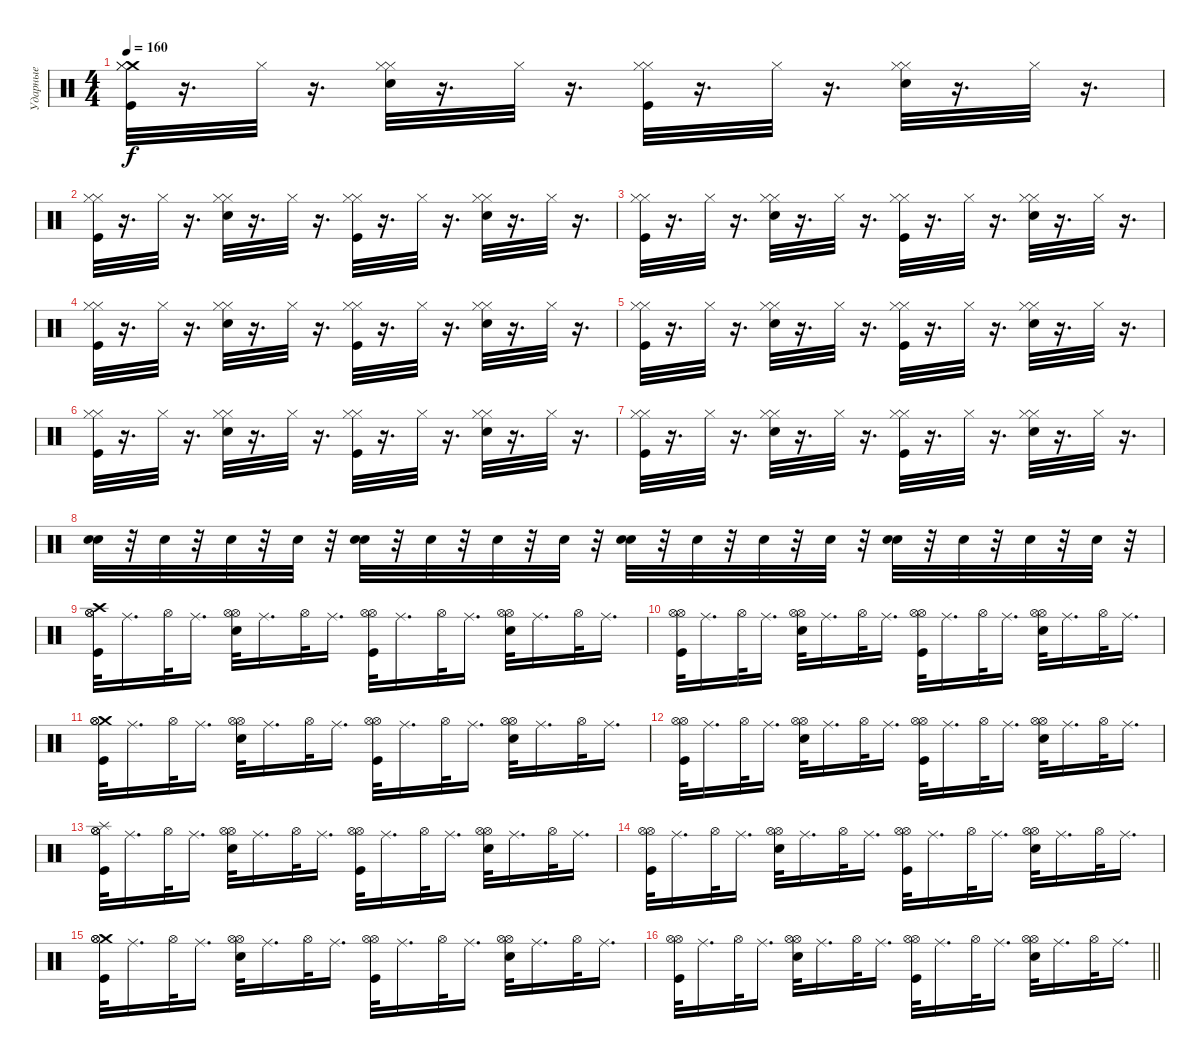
\track ("Ударные" "Ударные") {instrument percussion}
\staff {score}
\articulation defaults
\ts (4 4)
\tempo 160
\clef neutral
\ks c
("Crash medium (hit)" "Hi-Hat (closed)" "Hi-Hat (closed)" "Kick (hit)").32{dy f} r.16{d} "Hi-Hat (closed)".32 r.16{d} ("Hi-Hat (closed)" "Hi-Hat (closed)" "Snare (hit) 2").32 r.16{d} "Hi-Hat (closed)".32 r.16{d} ("Hi-Hat (closed)" "Hi-Hat (closed)" "Kick (hit)").32 r.16{d} "Hi-Hat (closed)".32 r.16{d} ("Hi-Hat (closed)" "Hi-Hat (closed)" "Snare (hit) 2").32 r.16{d} "Hi-Hat (closed)".32 r.16{d} |
("Hi-Hat (closed)" "Hi-Hat (closed)" "Kick (hit)").32 r.16{d} "Hi-Hat (closed)".32 r.16{d} ("Hi-Hat (closed)" "Hi-Hat (closed)" "Snare (hit) 2").32 r.16{d} "Hi-Hat (closed)".32 r.16{d} ("Hi-Hat (closed)" "Hi-Hat (closed)" "Kick (hit)").32 r.16{d} "Hi-Hat (closed)".32 r.16{d} ("Hi-Hat (closed)" "Hi-Hat (closed)" "Snare (hit) 2").32 r.16{d} "Hi-Hat (closed)".32 r.16{d} |
("Hi-Hat (closed)" "Hi-Hat (closed)" "Kick (hit)").32 r.16{d} "Hi-Hat (closed)".32 r.16{d} ("Hi-Hat (closed)" "Hi-Hat (closed)" "Snare (hit) 2").32 r.16{d} "Hi-Hat (closed)".32 r.16{d} ("Hi-Hat (closed)" "Hi-Hat (closed)" "Kick (hit)").32 r.16{d} "Hi-Hat (closed)".32 r.16{d} ("Hi-Hat (closed)" "Hi-Hat (closed)" "Snare (hit) 2").32 r.16{d} "Hi-Hat (closed)".32 r.16{d} |
("Hi-Hat (closed)" "Hi-Hat (closed)" "Kick (hit)").32 r.16{d} "Hi-Hat (closed)".32 r.16{d} ("Hi-Hat (closed)" "Hi-Hat (closed)" "Snare (hit) 2").32 r.16{d} "Hi-Hat (closed)".32 r.16{d} ("Hi-Hat (closed)" "Hi-Hat (closed)" "Kick (hit)").32 r.16{d} "Hi-Hat (closed)".32 r.16{d} ("Hi-Hat (closed)" "Hi-Hat (closed)" "Snare (hit) 2").32 r.16{d} "Hi-Hat (closed)".32 r.16{d} |
("Hi-Hat (closed)" "Hi-Hat (closed)" "Kick (hit)").32 r.16{d} "Hi-Hat (closed)".32 r.16{d} ("Hi-Hat (closed)" "Hi-Hat (closed)" "Snare (hit) 2").32 r.16{d} "Hi-Hat (closed)".32 r.16{d} ("Hi-Hat (closed)" "Hi-Hat (closed)" "Kick (hit)").32 r.16{d} "Hi-Hat (closed)".32 r.16{d} ("Hi-Hat (closed)" "Hi-Hat (closed)" "Snare (hit) 2").32 r.16{d} "Hi-Hat (closed)".32 r.16{d} |
("Hi-Hat (closed)" "Hi-Hat (closed)" "Kick (hit)").32 r.16{d} "Hi-Hat (closed)".32 r.16{d} ("Hi-Hat (closed)" "Hi-Hat (closed)" "Snare (hit) 2").32 r.16{d} "Hi-Hat (closed)".32 r.16{d} ("Hi-Hat (closed)" "Hi-Hat (closed)" "Kick (hit)").32 r.16{d} "Hi-Hat (closed)".32 r.16{d} ("Hi-Hat (closed)" "Hi-Hat (closed)" "Snare (hit) 2").32 r.16{d} "Hi-Hat (closed)".32 r.16{d} |
("Hi-Hat (closed)" "Hi-Hat (closed)" "Kick (hit)").32 r.16{d} "Hi-Hat (closed)".32 r.16{d} ("Hi-Hat (closed)" "Hi-Hat (closed)" "Snare (hit) 2").32 r.16{d} "Hi-Hat (closed)".32 r.16{d} ("Hi-Hat (closed)" "Hi-Hat (closed)" "Kick (hit)").32 r.16{d} "Hi-Hat (closed)".32 r.16{d} ("Hi-Hat (closed)" "Hi-Hat (closed)" "Snare (hit) 2").32 r.16{d} "Hi-Hat (closed)".32 r.16{d} |
("Snare (hit) 2" "Snare (hit) 2").32 r.32 "Snare (hit) 2".32 r.32 "Snare (hit) 2".32 r.32 "Snare (hit) 2".32 r.32 ("Snare (hit) 2" "Snare (hit) 2").32 r.32 "Snare (hit) 2".32 r.32 "Snare (hit) 2".32 r.32 "Snare (hit) 2".32 r.32 ("Snare (hit) 2" "Snare (hit) 2").32 r.32 "Snare (hit) 2".32 r.32 "Snare (hit) 2".32 r.32 "Snare (hit) 2".32 r.32 ("Snare (hit) 2" "Snare (hit) 2").32 r.32 "Snare (hit) 2".32 r.32 "Snare (hit) 2".32 r.32 "Snare (hit) 2".32 r.32 |
("Crash high (hit)" "Kick (hit)" "Hi-Hat (open)" "Hi-Hat (open)").32 "Ride (middle)".16{d} "Hi-Hat (open)".32 "Ride (middle)".16{d} ("Hi-Hat (open)" "Snare (hit) 2" "Hi-Hat (open)").32 "Ride (middle)".16{d} "Hi-Hat (open)".32 "Ride (middle)".16{d} ("Hi-Hat (open)" "Kick (hit)" "Hi-Hat (open)").32 "Ride (middle)".16{d} "Hi-Hat (open)".32 "Ride (middle)".16{d} ("Hi-Hat (open)" "Hi-Hat (open)" "Snare (hit) 2").32 "Ride (middle)".16{d} "Hi-Hat (open)".32 "Ride (middle)".16{d} |
("Hi-Hat (open)" "Hi-Hat (open)" "Kick (hit)").32 "Ride (middle)".16{d} "Hi-Hat (open)".32 "Ride (middle)".16{d} ("Snare (hit) 2" "Hi-Hat (open)" "Hi-Hat (open)").32 "Ride (middle)".16{d} "Hi-Hat (open)".32 "Ride (middle)".16{d} ("Kick (hit)" "Hi-Hat (open)" "Hi-Hat (open)").32 "Ride (middle)".16{d} "Hi-Hat (open)".32 "Ride (middle)".16{d} ("Hi-Hat (open)" "Hi-Hat (open)" "Snare (hit) 2").32 "Ride (middle)".16{d} "Hi-Hat (open)".32 "Ride (middle)".16{d} |
("Crash medium (hit)" "Hi-Hat (open)" "Kick (hit)" "Hi-Hat (open)").32 "Ride (middle)".16{d} "Hi-Hat (open)".32 "Ride (middle)".16{d} ("Hi-Hat (open)" "Snare (hit) 2" "Hi-Hat (open)").32 "Ride (middle)".16{d} "Hi-Hat (open)".32 "Ride (middle)".16{d} ("Kick (hit)" "Hi-Hat (open)" "Hi-Hat (open)").32 "Ride (middle)".16{d} "Hi-Hat (open)".32 "Ride (middle)".16{d} ("Hi-Hat (open)" "Hi-Hat (open)" "Snare (hit) 2").32 "Ride (middle)".16{d} "Hi-Hat (open)".32 "Ride (middle)".16{d} |
("Kick (hit)" "Hi-Hat (open)" "Hi-Hat (open)").32 "Ride (middle)".16{d} "Hi-Hat (open)".32 "Ride (middle)".16{d} ("Snare (hit) 2" "Hi-Hat (open)" "Hi-Hat (open)").32 "Ride (middle)".16{d} "Hi-Hat (open)".32 "Ride (middle)".16{d} ("Kick (hit)" "Hi-Hat (open)" "Hi-Hat (open)").32 "Ride (middle)".16{d} "Hi-Hat (open)".32 "Ride (middle)".16{d} ("Hi-Hat (open)" "Snare (hit) 2" "Hi-Hat (open)").32 "Ride (middle)".16{d} "Hi-Hat (open)".32 "Ride (middle)".16{d} |
("Splash (hit)" "Hi-Hat (open)" "Kick (hit)" "Hi-Hat (open)").32 "Ride (middle)".16{d} "Hi-Hat (open)".32 "Ride (middle)".16{d} ("Hi-Hat (open)" "Hi-Hat (open)" "Snare (hit) 2").32 "Ride (middle)".16{d} "Hi-Hat (open)".32 "Ride (middle)".16{d} ("Hi-Hat (open)" "Hi-Hat (open)" "Kick (hit)").32 "Ride (middle)".16{d} "Hi-Hat (open)".32 "Ride (middle)".16{d} ("Snare (hit) 2" "Hi-Hat (open)" "Hi-Hat (open)").32 "Ride (middle)".16{d} "Hi-Hat (open)".32 "Ride (middle)".16{d} |
("Kick (hit)" "Hi-Hat (open)" "Hi-Hat (open)").32 "Ride (middle)".16{d} "Hi-Hat (open)".32 "Ride (middle)".16{d} ("Snare (hit) 2" "Hi-Hat (open)" "Hi-Hat (open)").32 "Ride (middle)".16{d} "Hi-Hat (open)".32 "Ride (middle)".16{d} ("Hi-Hat (open)" "Kick (hit)" "Hi-Hat (open)").32 "Ride (middle)".16{d} "Hi-Hat (open)".32 "Ride (middle)".16{d} ("Hi-Hat (open)" "Snare (hit) 2" "Hi-Hat (open)").32 "Ride (middle)".16{d} "Hi-Hat (open)".32 "Ride (middle)".16{d} |
("Crash medium (hit)" "Kick (hit)" "Hi-Hat (open)" "Hi-Hat (open)").32 "Ride (middle)".16{d} "Hi-Hat (open)".32 "Ride (middle)".16{d} ("Hi-Hat (open)" "Hi-Hat (open)" "Snare (hit) 2").32 "Ride (middle)".16{d} "Hi-Hat (open)".32 "Ride (middle)".16{d} ("Kick (hit)" "Hi-Hat (open)" "Hi-Hat (open)").32 "Ride (middle)".16{d} "Hi-Hat (open)".32 "Ride (middle)".16{d} ("Snare (hit) 2" "Hi-Hat (open)" "Hi-Hat (open)").32 "Ride (middle)".16{d} "Hi-Hat (open)".32 "Ride (middle)".16{d} |
\barLineRight lightlight
("Kick (hit)" "Hi-Hat (open)" "Hi-Hat (open)").32 "Ride (middle)".16{d} "Hi-Hat (open)".32 "Ride (middle)".16{d} ("Hi-Hat (open)" "Snare (hit) 2" "Hi-Hat (open)").32 "Ride (middle)".16{d} "Hi-Hat (open)".32 "Ride (middle)".16{d} ("Kick (hit)" "Hi-Hat (open)" "Hi-Hat (open)").32 "Ride (middle)".16{d} "Hi-Hat (open)".32 "Ride (middle)".16{d} ("Snare (hit) 2" "Hi-Hat (open)" "Hi-Hat (open)").32 "Ride (middle)".16{d} "Hi-Hat (open)".32 "Ride (middle)".16{d}
